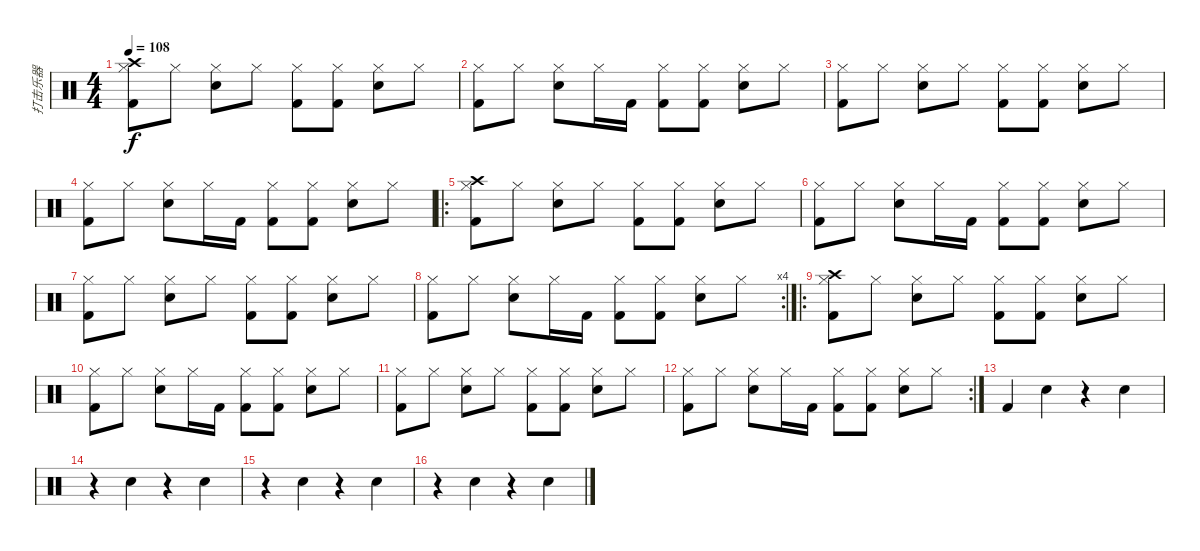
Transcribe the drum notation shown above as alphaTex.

\track ("打击乐器" "打击乐器") {instrument percussion}
\staff {score}
\articulation defaults
\ts (4 4)
\tempo 108
\clef neutral
\ks c
("Hi-Hat (closed)" "Kick (hit) 2" "Crash high (hit)").8{dy f} "Hi-Hat (closed)".8 ("Hi-Hat (closed)" "Snare (hit) 2").8 "Hi-Hat (closed)".8 ("Hi-Hat (closed)" "Kick (hit) 2").8 ("Hi-Hat (closed)" "Kick (hit) 2").8 ("Hi-Hat (closed)" "Snare (hit) 2").8 "Hi-Hat (closed)".8 |
("Hi-Hat (closed)" "Kick (hit) 2").8 "Hi-Hat (closed)".8 ("Hi-Hat (closed)" "Snare (hit) 2").8 "Hi-Hat (closed)".16 "Kick (hit) 2".16 ("Hi-Hat (closed)" "Kick (hit) 2").8 ("Hi-Hat (closed)" "Kick (hit) 2").8 ("Hi-Hat (closed)" "Snare (hit) 2").8 "Hi-Hat (closed)".8 |
("Hi-Hat (closed)" "Kick (hit) 2").8 "Hi-Hat (closed)".8 ("Hi-Hat (closed)" "Snare (hit) 2").8 "Hi-Hat (closed)".8 ("Hi-Hat (closed)" "Kick (hit) 2").8 ("Hi-Hat (closed)" "Kick (hit) 2").8 ("Hi-Hat (closed)" "Snare (hit) 2").8 "Hi-Hat (closed)".8 |
("Hi-Hat (closed)" "Kick (hit) 2").8 "Hi-Hat (closed)".8 ("Hi-Hat (closed)" "Snare (hit) 2").8 "Hi-Hat (closed)".16 "Kick (hit) 2".16 ("Hi-Hat (closed)" "Kick (hit) 2").8 ("Hi-Hat (closed)" "Kick (hit) 2").8 ("Hi-Hat (closed)" "Snare (hit) 2").8 "Hi-Hat (closed)".8 |
\ro
("Hi-Hat (closed)" "Kick (hit) 2" "Crash high (hit)").8 "Hi-Hat (closed)".8 ("Hi-Hat (closed)" "Snare (hit) 2").8 "Hi-Hat (closed)".8 ("Hi-Hat (closed)" "Kick (hit) 2").8 ("Hi-Hat (closed)" "Kick (hit) 2").8 ("Hi-Hat (closed)" "Snare (hit) 2").8 "Hi-Hat (closed)".8 |
("Hi-Hat (closed)" "Kick (hit) 2").8 "Hi-Hat (closed)".8 ("Hi-Hat (closed)" "Snare (hit) 2").8 "Hi-Hat (closed)".16 "Kick (hit) 2".16 ("Hi-Hat (closed)" "Kick (hit) 2").8 ("Hi-Hat (closed)" "Kick (hit) 2").8 ("Hi-Hat (closed)" "Snare (hit) 2").8 "Hi-Hat (closed)".8 |
("Hi-Hat (closed)" "Kick (hit) 2").8 "Hi-Hat (closed)".8 ("Hi-Hat (closed)" "Snare (hit) 2").8 "Hi-Hat (closed)".8 ("Hi-Hat (closed)" "Kick (hit) 2").8 ("Hi-Hat (closed)" "Kick (hit) 2").8 ("Hi-Hat (closed)" "Snare (hit) 2").8 "Hi-Hat (closed)".8 |
\rc 4
("Hi-Hat (closed)" "Kick (hit) 2").8 "Hi-Hat (closed)".8 ("Hi-Hat (closed)" "Snare (hit) 2").8 "Hi-Hat (closed)".16 "Kick (hit) 2".16 ("Hi-Hat (closed)" "Kick (hit) 2").8 ("Hi-Hat (closed)" "Kick (hit) 2").8 ("Hi-Hat (closed)" "Snare (hit) 2").8 "Hi-Hat (closed)".8 |
\ro
("Hi-Hat (closed)" "Kick (hit) 2" "Crash high (hit)").8 "Hi-Hat (closed)".8 ("Hi-Hat (closed)" "Snare (hit) 2").8 "Hi-Hat (closed)".8 ("Hi-Hat (closed)" "Kick (hit) 2").8 ("Hi-Hat (closed)" "Kick (hit) 2").8 ("Hi-Hat (closed)" "Snare (hit) 2").8 "Hi-Hat (closed)".8 |
("Hi-Hat (closed)" "Kick (hit) 2").8 "Hi-Hat (closed)".8 ("Hi-Hat (closed)" "Snare (hit) 2").8 "Hi-Hat (closed)".16 "Kick (hit) 2".16 ("Hi-Hat (closed)" "Kick (hit) 2").8 ("Hi-Hat (closed)" "Kick (hit) 2").8 ("Hi-Hat (closed)" "Snare (hit) 2").8 "Hi-Hat (closed)".8 |
("Hi-Hat (closed)" "Kick (hit) 2").8 "Hi-Hat (closed)".8 ("Hi-Hat (closed)" "Snare (hit) 2").8 "Hi-Hat (closed)".8 ("Hi-Hat (closed)" "Kick (hit) 2").8 ("Hi-Hat (closed)" "Kick (hit) 2").8 ("Hi-Hat (closed)" "Snare (hit) 2").8 "Hi-Hat (closed)".8 |
\rc 2
("Hi-Hat (closed)" "Kick (hit) 2").8 "Hi-Hat (closed)".8 ("Hi-Hat (closed)" "Snare (hit) 2").8 "Hi-Hat (closed)".16 "Kick (hit) 2".16 ("Hi-Hat (closed)" "Kick (hit) 2").8 ("Hi-Hat (closed)" "Kick (hit) 2").8 ("Hi-Hat (closed)" "Snare (hit) 2").8 "Hi-Hat (closed)".8 |
"Kick (hit) 2".4 "Hand Clap (hit)".4 r.4 "Hand Clap (hit)".4 |
r.4 "Hand Clap (hit)".4 r.4 "Hand Clap (hit)".4 |
r.4 "Hand Clap (hit)".4 r.4 "Hand Clap (hit)".4 |
r.4 "Hand Clap (hit)".4 r.4 "Hand Clap (hit)".4
